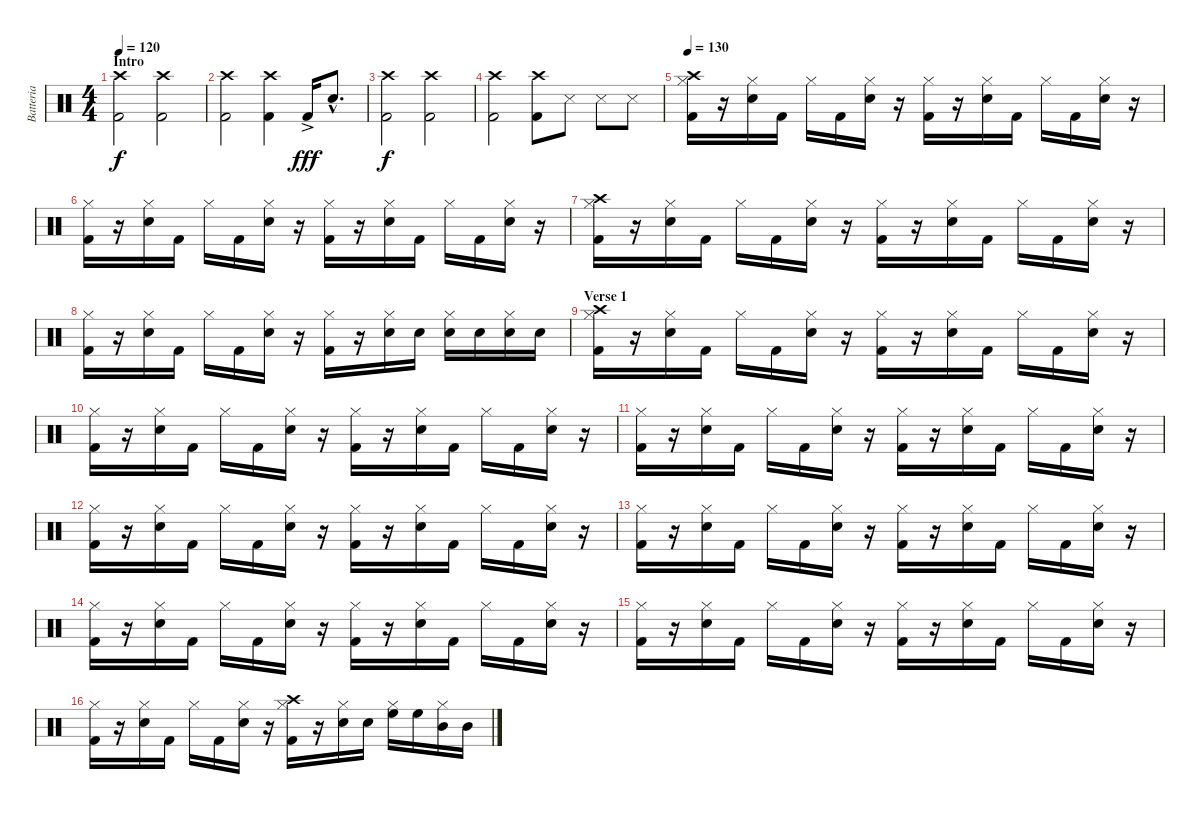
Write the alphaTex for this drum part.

\track ("Batteria" "Batteria") {instrument percussion}
\staff {score}
\articulation defaults
\ts (4 4)
\section ("" "Intro")
\tempo 120
\clef neutral
\ks c
("Crash high (hit)" "Kick (hit) 2").2{dy f} ("Crash high (hit)" "Kick (hit) 2").2 |
("Crash high (hit)" "Kick (hit) 2").2 ("Crash high (hit)" "Kick (hit) 2").4 "Kick (hit) 2"{ac}.16{dy fff} "Snare (hit) 2"{hac}.8{d} |
("Crash high (hit)" "Kick (hit) 2").2{dy f} ("Crash high (hit)" "Kick (hit) 2").2 |
("Crash high (hit)" "Kick (hit) 2").2 ("Crash high (hit)" "Kick (hit) 2").8 "Snare (side stick) 3".8 "Snare (side stick) 3".8 "Snare (side stick) 3".8 |
\tempo 130
("Kick (hit) 2" "Crash high (hit)" "Hi-Hat (closed)").16 r.16 ("Snare (hit) 2" "Hi-Hat (closed)").16 "Kick (hit) 2".16 "Hi-Hat (closed)".16 "Kick (hit) 2".16 ("Snare (hit) 2" "Hi-Hat (closed)").16 r.16 ("Kick (hit) 2" "Hi-Hat (closed)").16 r.16 ("Snare (hit) 2" "Hi-Hat (closed)").16 "Kick (hit) 2".16 "Hi-Hat (closed)".16 "Kick (hit) 2".16 ("Snare (hit) 2" "Hi-Hat (closed)").16 r.16 |
("Kick (hit) 2" "Hi-Hat (closed)").16 r.16 ("Snare (hit) 2" "Hi-Hat (closed)").16 "Kick (hit) 2".16 "Hi-Hat (closed)".16 "Kick (hit) 2".16 ("Snare (hit) 2" "Hi-Hat (closed)").16 r.16 ("Kick (hit) 2" "Hi-Hat (closed)").16 r.16 ("Snare (hit) 2" "Hi-Hat (closed)").16 "Kick (hit) 2".16 "Hi-Hat (closed)".16 "Kick (hit) 2".16 ("Snare (hit) 2" "Hi-Hat (closed)").16 r.16 |
("Kick (hit) 2" "Crash high (hit)" "Hi-Hat (closed)").16 r.16 ("Snare (hit) 2" "Hi-Hat (closed)").16 "Kick (hit) 2".16 "Hi-Hat (closed)".16 "Kick (hit) 2".16 ("Snare (hit) 2" "Hi-Hat (closed)").16 r.16 ("Kick (hit) 2" "Hi-Hat (closed)").16 r.16 ("Snare (hit) 2" "Hi-Hat (closed)").16 "Kick (hit) 2".16 "Hi-Hat (closed)".16 "Kick (hit) 2".16 ("Snare (hit) 2" "Hi-Hat (closed)").16 r.16 |
("Kick (hit) 2" "Hi-Hat (closed)").16 r.16 ("Snare (hit) 2" "Hi-Hat (closed)").16 "Kick (hit) 2".16 "Hi-Hat (closed)".16 "Kick (hit) 2".16 ("Snare (hit) 2" "Hi-Hat (closed)").16 r.16 ("Kick (hit) 2" "Hi-Hat (closed)").16 r.16 ("Snare (hit) 2" "Hi-Hat (closed)").16 "Snare (hit) 2".16 ("Snare (hit) 2" "Hi-Hat (closed)").16 "Snare (hit) 2".16 ("Snare (hit) 2" "Hi-Hat (closed)").16 "Snare (hit) 2".16 |
\section ("" "Verse 1")
("Kick (hit) 2" "Crash high (hit)" "Hi-Hat (closed)").16 r.16 ("Snare (hit) 2" "Hi-Hat (closed)").16 "Kick (hit) 2".16 "Hi-Hat (closed)".16 "Kick (hit) 2".16 ("Snare (hit) 2" "Hi-Hat (closed)").16 r.16 ("Kick (hit) 2" "Hi-Hat (closed)").16 r.16 ("Snare (hit) 2" "Hi-Hat (closed)").16 "Kick (hit) 2".16 "Hi-Hat (closed)".16 "Kick (hit) 2".16 ("Snare (hit) 2" "Hi-Hat (closed)").16 r.16 |
("Kick (hit) 2" "Hi-Hat (closed)").16 r.16 ("Snare (hit) 2" "Hi-Hat (closed)").16 "Kick (hit) 2".16 "Hi-Hat (closed)".16 "Kick (hit) 2".16 ("Snare (hit) 2" "Hi-Hat (closed)").16 r.16 ("Kick (hit) 2" "Hi-Hat (closed)").16 r.16 ("Snare (hit) 2" "Hi-Hat (closed)").16 "Kick (hit) 2".16 "Hi-Hat (closed)".16 "Kick (hit) 2".16 ("Snare (hit) 2" "Hi-Hat (closed)").16 r.16 |
("Kick (hit) 2" "Hi-Hat (closed)").16 r.16 ("Snare (hit) 2" "Hi-Hat (closed)").16 "Kick (hit) 2".16 "Hi-Hat (closed)".16 "Kick (hit) 2".16 ("Snare (hit) 2" "Hi-Hat (closed)").16 r.16 ("Kick (hit) 2" "Hi-Hat (closed)").16 r.16 ("Snare (hit) 2" "Hi-Hat (closed)").16 "Kick (hit) 2".16 "Hi-Hat (closed)".16 "Kick (hit) 2".16 ("Snare (hit) 2" "Hi-Hat (closed)").16 r.16 |
("Kick (hit) 2" "Hi-Hat (closed)").16 r.16 ("Snare (hit) 2" "Hi-Hat (closed)").16 "Kick (hit) 2".16 "Hi-Hat (closed)".16 "Kick (hit) 2".16 ("Snare (hit) 2" "Hi-Hat (closed)").16 r.16 ("Kick (hit) 2" "Hi-Hat (closed)").16 r.16 ("Snare (hit) 2" "Hi-Hat (closed)").16 "Kick (hit) 2".16 "Hi-Hat (closed)".16 "Kick (hit) 2".16 ("Snare (hit) 2" "Hi-Hat (closed)").16 r.16 |
("Kick (hit) 2" "Hi-Hat (closed)").16 r.16 ("Snare (hit) 2" "Hi-Hat (closed)").16 "Kick (hit) 2".16 "Hi-Hat (closed)".16 "Kick (hit) 2".16 ("Snare (hit) 2" "Hi-Hat (closed)").16 r.16 ("Kick (hit) 2" "Hi-Hat (closed)").16 r.16 ("Snare (hit) 2" "Hi-Hat (closed)").16 "Kick (hit) 2".16 "Hi-Hat (closed)".16 "Kick (hit) 2".16 ("Snare (hit) 2" "Hi-Hat (closed)").16 r.16 |
("Kick (hit) 2" "Hi-Hat (closed)").16 r.16 ("Snare (hit) 2" "Hi-Hat (closed)").16 "Kick (hit) 2".16 "Hi-Hat (closed)".16 "Kick (hit) 2".16 ("Snare (hit) 2" "Hi-Hat (closed)").16 r.16 ("Kick (hit) 2" "Hi-Hat (closed)").16 r.16 ("Snare (hit) 2" "Hi-Hat (closed)").16 "Kick (hit) 2".16 "Hi-Hat (closed)".16 "Kick (hit) 2".16 ("Snare (hit) 2" "Hi-Hat (closed)").16 r.16 |
("Kick (hit) 2" "Hi-Hat (closed)").16 r.16 ("Snare (hit) 2" "Hi-Hat (closed)").16 "Kick (hit) 2".16 "Hi-Hat (closed)".16 "Kick (hit) 2".16 ("Snare (hit) 2" "Hi-Hat (closed)").16 r.16 ("Kick (hit) 2" "Hi-Hat (closed)").16 r.16 ("Snare (hit) 2" "Hi-Hat (closed)").16 "Kick (hit) 2".16 "Hi-Hat (closed)".16 "Kick (hit) 2".16 ("Snare (hit) 2" "Hi-Hat (closed)").16 r.16 |
("Kick (hit) 2" "Hi-Hat (closed)").16 r.16 ("Snare (hit) 2" "Hi-Hat (closed)").16 "Kick (hit) 2".16 "Hi-Hat (closed)".16 "Kick (hit) 2".16 ("Snare (hit) 2" "Hi-Hat (closed)").16 r.16 ("Crash high (hit)" "Kick (hit) 2" "Hi-Hat (closed)").16 r.16 ("Snare (hit) 2" "Hi-Hat (closed)").16 "Snare (hit) 2".16 ("High Floor Tom (hit)" "Hi-Hat (closed)").16 "High Floor Tom (hit)".16 ("Mid Tom (hit)" "Hi-Hat (closed)").16 "Mid Tom (hit)".16
